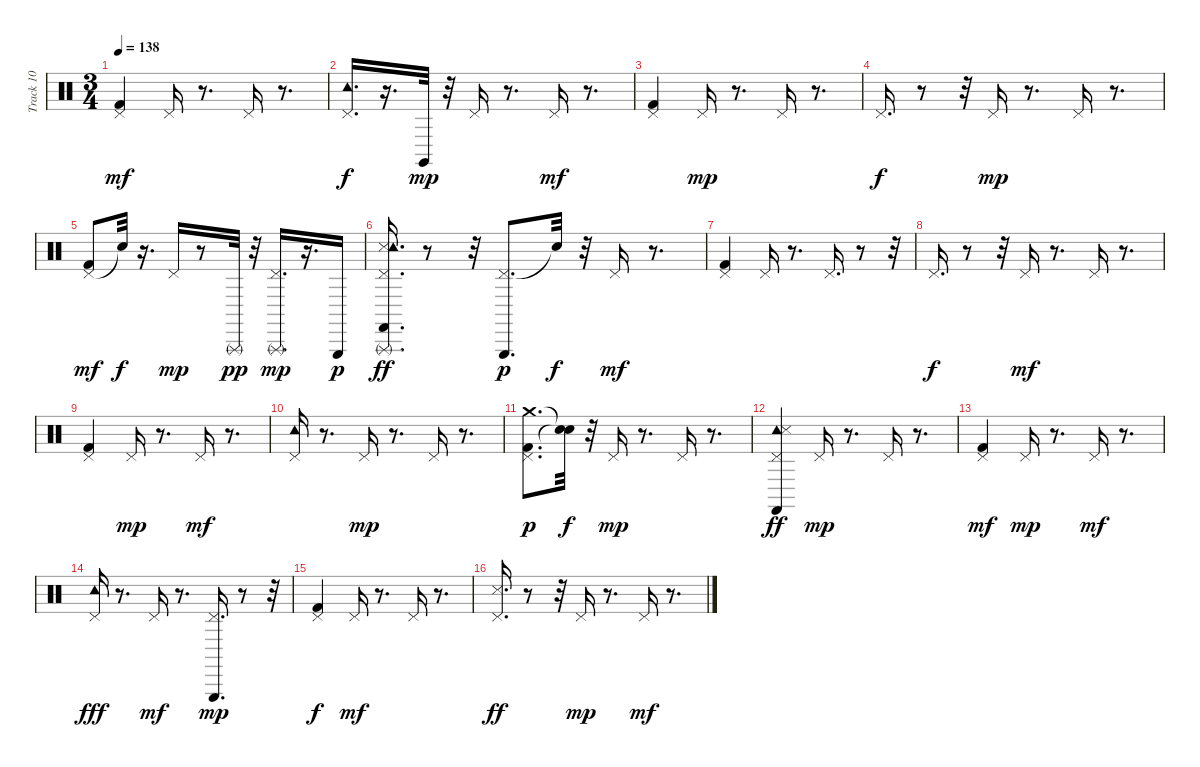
\track ("Track 10" "Track 10") {instrument percussion}
\staff {score}
\articulation defaults
\ts (3 4)
\tempo 138
\clef neutral
\ks c
("Pedal Hi-Hat (hit)" "Kick (hit) 2").4{dy mf} "Pedal Hi-Hat (hit)".16 r.8{d} "Pedal Hi-Hat (hit)".16 r.8{d} |
("Tambourine (hit)" "Pedal Hi-Hat (hit)").16{d dy f} r.16{d} "Claves (hit)".32{dy mp} r.32 "Pedal Hi-Hat (hit)".16 r.8{d} "Pedal Hi-Hat (hit)".16{dy mf} r.8{d} |
("Kick (hit) 2" "Pedal Hi-Hat (hit)").4 "Pedal Hi-Hat (hit)".16{dy mp} r.8{d} "Pedal Hi-Hat (hit)".16 r.8{d} |
"Pedal Hi-Hat (hit)".16{d dy f} r.8 r.32 "Pedal Hi-Hat (hit)".16{dy mp} r.8{d} "Pedal Hi-Hat (hit)".16 r.8{d} |
("Pedal Hi-Hat (hit)" "Kick (hit) 2").8{dy mf} "Snare (hit)"{t}.32{dy f} r.16{d} "Pedal Hi-Hat (hit)".16{dy mp} r.8 "Triangle (rnute)".32{dy pp} r.32 ("Triangle (rnute)" "Pedal Hi-Hat (hit)").16{d dy mp} r.16{d} "Triangle (hit)".16{dy p} |
("Pedal Hi-Hat (hit)" "Triangle (rnute)" "Snare (side stick) 3" "Castanets (hit)" "Tambourine (hit)").16{d dy ff} r.8 r.32 ("Pedal Hi-Hat (hit)" "Triangle (hit)").8{d dy p} "Snare (hit)"{t}.32{dy f} r.32 "Pedal Hi-Hat (hit)".16{dy mf} r.8{d} |
("Kick (hit) 2" "Pedal Hi-Hat (hit)").4 "Pedal Hi-Hat (hit)".16 r.8{d} "Pedal Hi-Hat (hit)".16{d} r.8 r.32 |
"Pedal Hi-Hat (hit)".16{d dy f} r.8 r.32 "Pedal Hi-Hat (hit)".16{dy mf} r.8{d} "Pedal Hi-Hat (hit)".16 r.8{d} |
("Pedal Hi-Hat (hit)" "Kick (hit) 2").4 "Pedal Hi-Hat (hit)".16{dy mp} r.8{d} "Pedal Hi-Hat (hit)".16{dy mf} r.8{d} |
("Tambourine (hit)" "Pedal Hi-Hat (hit)").16 r.8{d} "Pedal Hi-Hat (hit)".16{dy mp} r.8{d} "Pedal Hi-Hat (hit)".16 r.8{d} |
("Crash medium (hit)" "Kick (hit) 2" "Pedal Hi-Hat (hit)").8{d dy p} ("Snare (hit)"{t} "Snare (hit)"{t}).32{dy f} r.32 "Pedal Hi-Hat (hit)".16{dy mp} r.8{d} "Pedal Hi-Hat (hit)".16 r.8{d} |
("Castanets (hit)" "Tambourine (hit)" "Snare (side stick) 3" "Pedal Hi-Hat (hit)").4{dy ff} "Pedal Hi-Hat (hit)".16{dy mp} r.8{d} "Pedal Hi-Hat (hit)".16 r.8{d} |
("Pedal Hi-Hat (hit)" "Kick (hit) 2").4{dy mf} "Pedal Hi-Hat (hit)".16{dy mp} r.8{d} "Pedal Hi-Hat (hit)".16{dy mf} r.8{d} |
("Pedal Hi-Hat (hit)" "Tambourine (hit)").16{dy fff} r.8{d} "Pedal Hi-Hat (hit)".16{dy mf} r.8{d} ("Pedal Hi-Hat (hit)" "Triangle (hit)").16{d dy mp} r.8 r.32 |
("Pedal Hi-Hat (hit)" "Kick (hit) 2").4{dy f} "Pedal Hi-Hat (hit)".16{dy mf} r.8{d} "Pedal Hi-Hat (hit)".16 r.8{d} |
("Pedal Hi-Hat (hit)" "Snare (side stick) 3").16{d dy ff} r.8 r.32 "Pedal Hi-Hat (hit)".16{dy mp} r.8{d} "Pedal Hi-Hat (hit)".16{dy mf} r.8{d}
